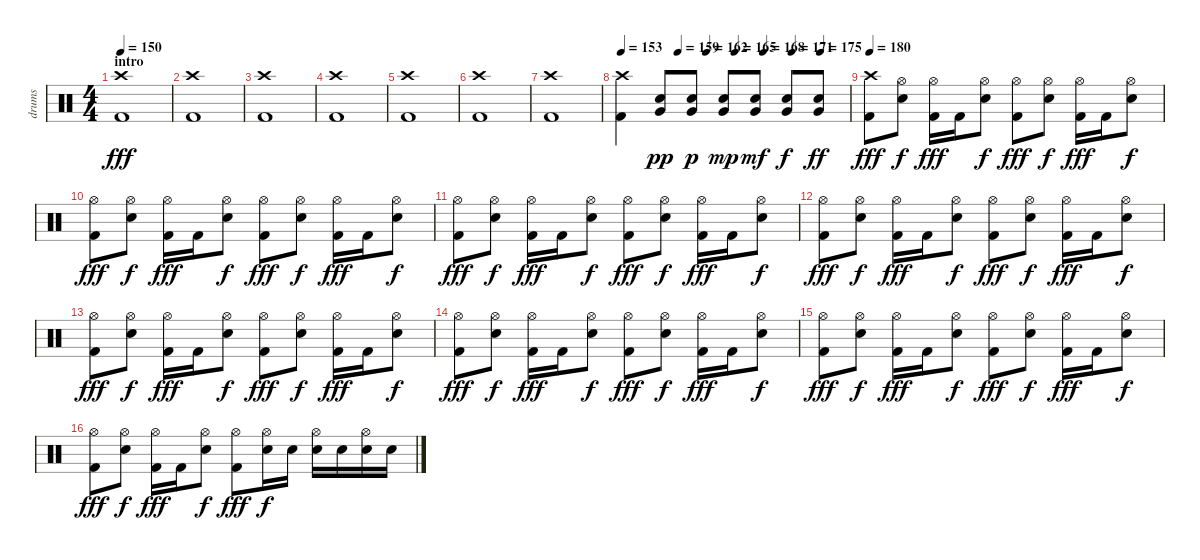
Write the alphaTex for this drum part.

\track ("drums" "drums") {instrument percussion}
\staff {score}
\articulation defaults
\ts (4 4)
\section ("" "intro")
\tempo 150
\clef neutral
\ks c
("Crash high (hit)" "Kick (hit) 2").1{dy fff} |
("Crash high (hit)" "Kick (hit) 2").1 |
("Crash high (hit)" "Kick (hit) 2").1 |
("Crash high (hit)" "Kick (hit) 2").1 |
("Crash high (hit)" "Kick (hit) 2").1 |
("Crash high (hit)" "Kick (hit) 2").1 |
("Crash high (hit)" "Kick (hit) 2").1 |
\tempo 153
\tempo (159 0.25)
\tempo (162 0.375)
\tempo (165 0.5)
\tempo (168 0.625)
\tempo (171 0.75)
\tempo (175 0.875)
("Crash high (hit)" "Kick (hit) 2").4 ("Very Low Tom (hit)" "Snare (hit) 2").8{dy pp} ("Very Low Tom (hit)" "Snare (hit) 2").8{dy p} ("Very Low Tom (hit)" "Snare (hit) 2").8{dy mp} ("Very Low Tom (hit)" "Snare (hit) 2").8{dy mf} ("Very Low Tom (hit)" "Snare (hit) 2").8{dy f} ("Very Low Tom (hit)" "Snare (hit) 2").8{dy ff} |
\tempo 180
("Crash high (hit)" "Kick (hit) 2").8{dy fff} ("Hi-Hat (open)" "Snare (hit) 2").8{dy f} ("Hi-Hat (open)" "Kick (hit) 2").16{dy fff} "Kick (hit) 2".16 ("Hi-Hat (open)" "Snare (hit) 2").8{dy f} ("Hi-Hat (open)" "Kick (hit) 2").8{dy fff} ("Hi-Hat (open)" "Snare (hit) 2").8{dy f} ("Hi-Hat (open)" "Kick (hit) 2").16{dy fff} "Kick (hit) 2".16 ("Hi-Hat (open)" "Snare (hit) 2").8{dy f} |
("Hi-Hat (open)" "Kick (hit) 2").8{dy fff} ("Hi-Hat (open)" "Snare (hit) 2").8{dy f} ("Hi-Hat (open)" "Kick (hit) 2").16{dy fff} "Kick (hit) 2".16 ("Hi-Hat (open)" "Snare (hit) 2").8{dy f} ("Hi-Hat (open)" "Kick (hit) 2").8{dy fff} ("Hi-Hat (open)" "Snare (hit) 2").8{dy f} ("Hi-Hat (open)" "Kick (hit) 2").16{dy fff} "Kick (hit) 2".16 ("Hi-Hat (open)" "Snare (hit) 2").8{dy f} |
("Hi-Hat (open)" "Kick (hit) 2").8{dy fff} ("Hi-Hat (open)" "Snare (hit) 2").8{dy f} ("Hi-Hat (open)" "Kick (hit) 2").16{dy fff} "Kick (hit) 2".16 ("Hi-Hat (open)" "Snare (hit) 2").8{dy f} ("Hi-Hat (open)" "Kick (hit) 2").8{dy fff} ("Hi-Hat (open)" "Snare (hit) 2").8{dy f} ("Hi-Hat (open)" "Kick (hit) 2").16{dy fff} "Kick (hit) 2".16 ("Hi-Hat (open)" "Snare (hit) 2").8{dy f} |
("Hi-Hat (open)" "Kick (hit) 2").8{dy fff} ("Hi-Hat (open)" "Snare (hit) 2").8{dy f} ("Hi-Hat (open)" "Kick (hit) 2").16{dy fff} "Kick (hit) 2".16 ("Hi-Hat (open)" "Snare (hit) 2").8{dy f} ("Hi-Hat (open)" "Kick (hit) 2").8{dy fff} ("Hi-Hat (open)" "Snare (hit) 2").8{dy f} ("Hi-Hat (open)" "Kick (hit) 2").16{dy fff} "Kick (hit) 2".16 ("Hi-Hat (open)" "Snare (hit) 2").8{dy f} |
("Hi-Hat (open)" "Kick (hit) 2").8{dy fff} ("Hi-Hat (open)" "Snare (hit) 2").8{dy f} ("Hi-Hat (open)" "Kick (hit) 2").16{dy fff} "Kick (hit) 2".16 ("Hi-Hat (open)" "Snare (hit) 2").8{dy f} ("Hi-Hat (open)" "Kick (hit) 2").8{dy fff} ("Hi-Hat (open)" "Snare (hit) 2").8{dy f} ("Hi-Hat (open)" "Kick (hit) 2").16{dy fff} "Kick (hit) 2".16 ("Hi-Hat (open)" "Snare (hit) 2").8{dy f} |
("Hi-Hat (open)" "Kick (hit) 2").8{dy fff} ("Hi-Hat (open)" "Snare (hit) 2").8{dy f} ("Hi-Hat (open)" "Kick (hit) 2").16{dy fff} "Kick (hit) 2".16 ("Hi-Hat (open)" "Snare (hit) 2").8{dy f} ("Hi-Hat (open)" "Kick (hit) 2").8{dy fff} ("Hi-Hat (open)" "Snare (hit) 2").8{dy f} ("Hi-Hat (open)" "Kick (hit) 2").16{dy fff} "Kick (hit) 2".16 ("Hi-Hat (open)" "Snare (hit) 2").8{dy f} |
("Hi-Hat (open)" "Kick (hit) 2").8{dy fff} ("Hi-Hat (open)" "Snare (hit) 2").8{dy f} ("Hi-Hat (open)" "Kick (hit) 2").16{dy fff} "Kick (hit) 2".16 ("Hi-Hat (open)" "Snare (hit) 2").8{dy f} ("Hi-Hat (open)" "Kick (hit) 2").8{dy fff} ("Hi-Hat (open)" "Snare (hit) 2").8{dy f} ("Hi-Hat (open)" "Kick (hit) 2").16{dy fff} "Kick (hit) 2".16 ("Hi-Hat (open)" "Snare (hit) 2").8{dy f} |
("Hi-Hat (open)" "Kick (hit) 2").8{dy fff} ("Hi-Hat (open)" "Snare (hit) 2").8{dy f} ("Hi-Hat (open)" "Kick (hit) 2").16{dy fff} "Kick (hit) 2".16 ("Hi-Hat (open)" "Snare (hit) 2").8{dy f} ("Hi-Hat (open)" "Kick (hit) 2").8{dy fff} ("Hi-Hat (open)" "Snare (hit) 2").16{dy f} "Snare (hit) 2".16 ("Hi-Hat (open)" "Snare (hit) 2").16 "Snare (hit) 2".16 ("Hi-Hat (open)" "Snare (hit) 2").16 "Snare (hit) 2".16
